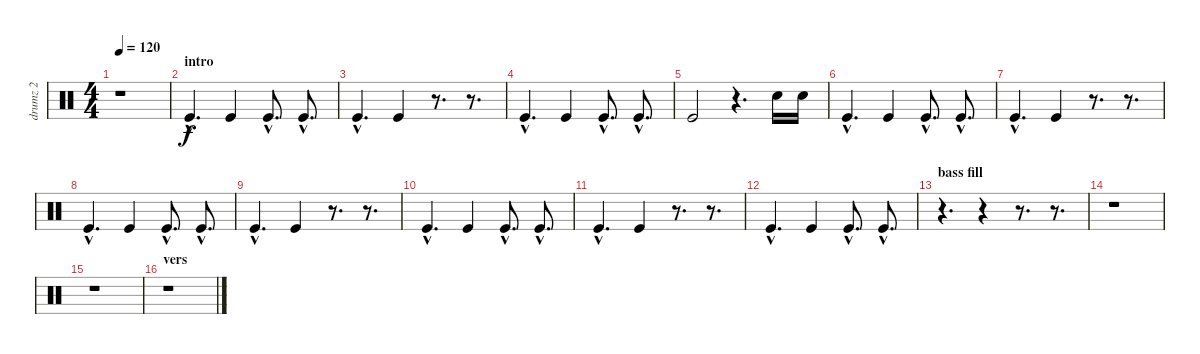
\track ("drumz 2" "drumz 2") {instrument percussion}
\staff {score}
\articulation defaults
\ts (4 4)
\tempo 120
\clef neutral
\ks c
r.1{dy f} |
\section ("" "intro")
"Kick (hit)"{hac}.4{d} "Kick (hit)".4 "Kick (hit)"{hac}.8{d} "Kick (hit)"{hac}.8{d} |
"Kick (hit)"{hac}.4{d} "Kick (hit)".4 r.8{d} r.8{d} |
"Kick (hit)"{hac}.4{d} "Kick (hit)".4 "Kick (hit)"{hac}.8{d} "Kick (hit)"{hac}.8{d} |
"Kick (hit)".2 r.4{d} "Snare (hit) 2".16 "Snare (hit) 2".16 |
"Kick (hit)"{hac}.4{d} "Kick (hit)".4 "Kick (hit)"{hac}.8{d} "Kick (hit)"{hac}.8{d} |
"Kick (hit)"{hac}.4{d} "Kick (hit)".4 r.8{d} r.8{d} |
"Kick (hit)"{hac}.4{d} "Kick (hit)".4 "Kick (hit)"{hac}.8{d} "Kick (hit)"{hac}.8{d} |
"Kick (hit)"{hac}.4{d} "Kick (hit)".4 r.8{d} r.8{d} |
"Kick (hit)"{hac}.4{d} "Kick (hit)".4 "Kick (hit)"{hac}.8{d} "Kick (hit)"{hac}.8{d} |
"Kick (hit)"{hac}.4{d} "Kick (hit)".4 r.8{d} r.8{d} |
"Kick (hit)"{hac}.4{d} "Kick (hit)".4 "Kick (hit)"{hac}.8{d} "Kick (hit)"{hac}.8{d} |
\section ("" "bass fill")
r.4{d} r.4 r.8{d} r.8{d} |
r.1 |
r.1 |
\section ("" "vers")
r.1
